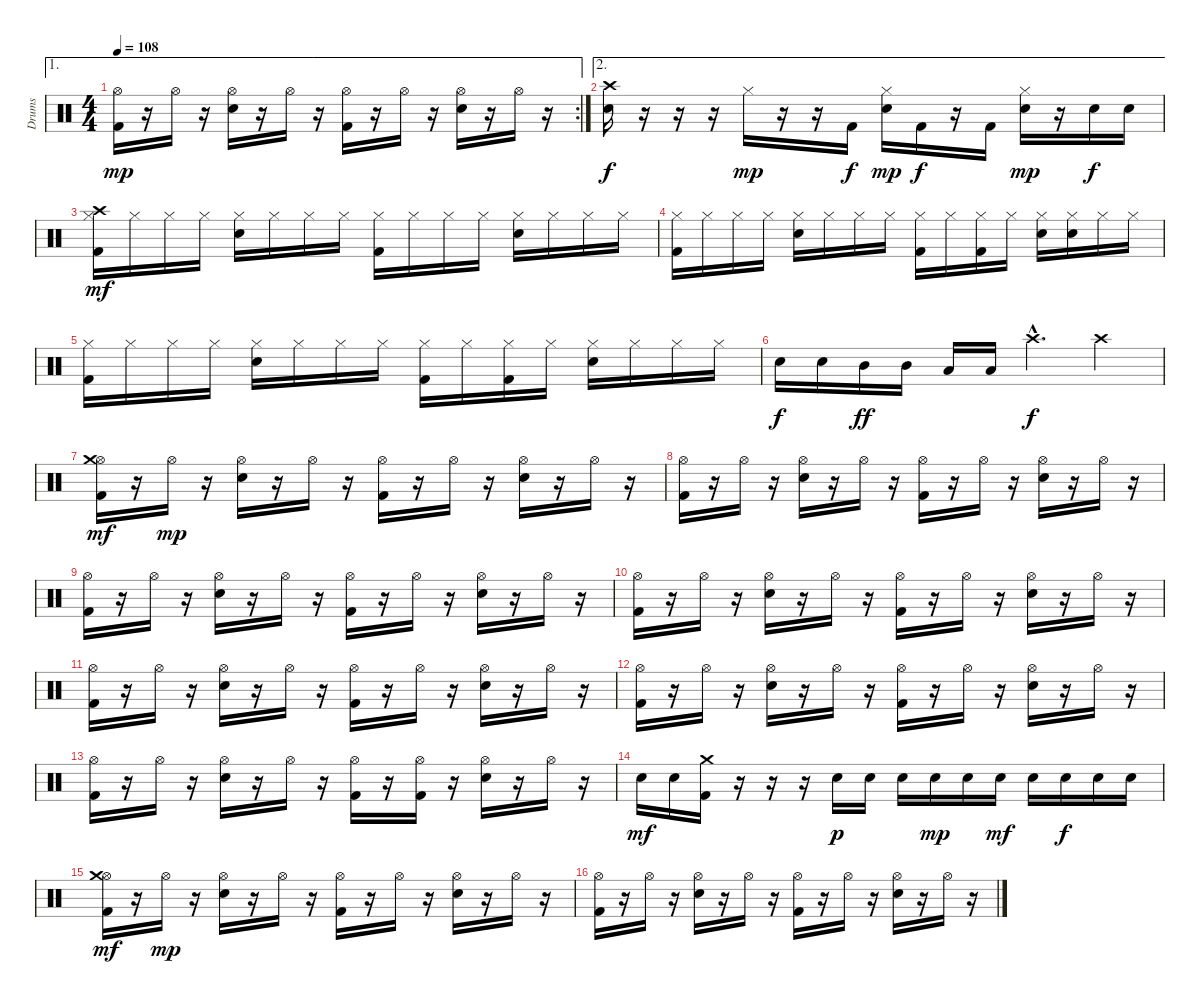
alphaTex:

\track ("Drums" "Drums") {instrument percussion}
\staff {score}
\articulation defaults
\ae 1
\rc 2
\ts (4 4)
\tempo 108
\clef neutral
\ks c
("Hi-Hat (open)" "Kick (hit) 2").16{dy mp} r.16 "Hi-Hat (open)".16 r.16 ("Hi-Hat (open)" "Snare (hit) 2").16 r.16 "Hi-Hat (open)".16 r.16 ("Hi-Hat (open)" "Kick (hit) 2").16 r.16 "Hi-Hat (open)".16 r.16 ("Hi-Hat (open)" "Snare (hit) 2").16 r.16 "Hi-Hat (open)".16 r.16 |
\ae 2
("Crash high (hit)" "Snare (hit) 2").16{dy f} r.16 r.16 r.16 "Hi-Hat (closed)".16{dy mp} r.16 r.16 "Kick (hit) 2".16{dy f} ("Hi-Hat (closed)" "Snare (hit) 2").16{dy mp} "Kick (hit) 2".16{dy f} r.16 "Kick (hit) 2".16 ("Hi-Hat (closed)" "Snare (hit) 2").16{dy mp} r.16 "Snare (hit) 2".16{dy f} "Snare (hit) 2".16 |
("Hi-Hat (closed)" "Crash high (hit)" "Kick (hit) 2").16{dy mf} "Hi-Hat (closed)".16 "Hi-Hat (closed)".16 "Hi-Hat (closed)".16 ("Hi-Hat (closed)" "Snare (hit) 2").16 "Hi-Hat (closed)".16 "Hi-Hat (closed)".16 "Hi-Hat (closed)".16 ("Hi-Hat (closed)" "Kick (hit) 2").16 "Hi-Hat (closed)".16 "Hi-Hat (closed)".16 "Hi-Hat (closed)".16 ("Hi-Hat (closed)" "Snare (hit) 2").16 "Hi-Hat (closed)".16 "Hi-Hat (closed)".16 "Hi-Hat (closed)".16 |
("Hi-Hat (closed)" "Kick (hit) 2").16 "Hi-Hat (closed)".16 "Hi-Hat (closed)".16 "Hi-Hat (closed)".16 ("Hi-Hat (closed)" "Snare (hit) 2").16 "Hi-Hat (closed)".16 "Hi-Hat (closed)".16 "Hi-Hat (closed)".16 ("Hi-Hat (closed)" "Kick (hit) 2").16 "Hi-Hat (closed)".16 ("Hi-Hat (closed)" "Kick (hit) 2").16 "Hi-Hat (closed)".16 ("Hi-Hat (closed)" "Snare (hit) 2").16 ("Hi-Hat (closed)" "Snare (hit) 2").16 "Hi-Hat (closed)".16 "Hi-Hat (closed)".16 |
("Hi-Hat (closed)" "Kick (hit) 2").16 "Hi-Hat (closed)".16 "Hi-Hat (closed)".16 "Hi-Hat (closed)".16 ("Hi-Hat (closed)" "Snare (hit) 2").16 "Hi-Hat (closed)".16 "Hi-Hat (closed)".16 "Hi-Hat (closed)".16 ("Hi-Hat (closed)" "Kick (hit) 2").16 "Hi-Hat (closed)".16 ("Hi-Hat (closed)" "Kick (hit) 2").16 "Hi-Hat (closed)".16 ("Hi-Hat (closed)" "Snare (hit) 2").16 "Hi-Hat (closed)".16 "Hi-Hat (closed)".16 "Hi-Hat (closed)".16 |
"Snare (hit) 2".16{dy f} "Snare (hit) 2".16 "Mid Tom (hit)".16{dy ff} "Mid Tom (hit)".16 "Low Tom (hit)".16 "Low Tom (hit)".16 "Crash high (hit)"{hac}.4{d dy f} "Crash high (hit)".4 |
("Hi-Hat (open)" "Crash medium (hit)" "Kick (hit) 2").16{dy mf} r.16 "Hi-Hat (open)".16{dy mp} r.16 ("Hi-Hat (open)" "Snare (hit) 2").16 r.16 "Hi-Hat (open)".16 r.16 ("Hi-Hat (open)" "Kick (hit) 2").16 r.16 "Hi-Hat (open)".16 r.16 ("Hi-Hat (open)" "Snare (hit) 2").16 r.16 "Hi-Hat (open)".16 r.16 |
("Hi-Hat (open)" "Kick (hit) 2").16 r.16 "Hi-Hat (open)".16 r.16 ("Hi-Hat (open)" "Snare (hit) 2").16 r.16 "Hi-Hat (open)".16 r.16 ("Hi-Hat (open)" "Kick (hit) 2").16 r.16 "Hi-Hat (open)".16 r.16 ("Hi-Hat (open)" "Snare (hit) 2").16 r.16 "Hi-Hat (open)".16 r.16 |
("Hi-Hat (open)" "Kick (hit) 2").16 r.16 "Hi-Hat (open)".16 r.16 ("Hi-Hat (open)" "Snare (hit) 2").16 r.16 "Hi-Hat (open)".16 r.16 ("Hi-Hat (open)" "Kick (hit) 2").16 r.16 "Hi-Hat (open)".16 r.16 ("Hi-Hat (open)" "Snare (hit) 2").16 r.16 "Hi-Hat (open)".16 r.16 |
("Hi-Hat (open)" "Kick (hit) 2").16 r.16 "Hi-Hat (open)".16 r.16 ("Hi-Hat (open)" "Snare (hit) 2").16 r.16 "Hi-Hat (open)".16 r.16 ("Hi-Hat (open)" "Kick (hit) 2").16 r.16 "Hi-Hat (open)".16 r.16 ("Hi-Hat (open)" "Snare (hit) 2").16 r.16 "Hi-Hat (open)".16 r.16 |
("Hi-Hat (open)" "Kick (hit) 2").16 r.16 "Hi-Hat (open)".16 r.16 ("Hi-Hat (open)" "Snare (hit) 2").16 r.16 "Hi-Hat (open)".16 r.16 ("Hi-Hat (open)" "Kick (hit) 2").16 r.16 "Hi-Hat (open)".16 r.16 ("Hi-Hat (open)" "Snare (hit) 2").16 r.16 "Hi-Hat (open)".16 r.16 |
("Hi-Hat (open)" "Kick (hit) 2").16 r.16 "Hi-Hat (open)".16 r.16 ("Hi-Hat (open)" "Snare (hit) 2").16 r.16 "Hi-Hat (open)".16 r.16 ("Hi-Hat (open)" "Kick (hit) 2").16 r.16 "Hi-Hat (open)".16 r.16 ("Hi-Hat (open)" "Snare (hit) 2").16 r.16 "Hi-Hat (open)".16 r.16 |
("Hi-Hat (open)" "Kick (hit) 2").16 r.16 "Hi-Hat (open)".16 r.16 ("Hi-Hat (open)" "Snare (hit) 2").16 r.16 "Hi-Hat (open)".16 r.16 ("Hi-Hat (open)" "Kick (hit) 2").16 r.16 ("Hi-Hat (open)" "Kick (hit) 2").16 r.16 ("Hi-Hat (open)" "Snare (hit) 2").16 r.16 "Hi-Hat (open)".16 r.16 |
"Snare (hit) 2".16{dy mf} "Snare (hit) 2".16 ("Crash medium (hit)" "Kick (hit) 2").16 r.16 r.16 r.16 "Snare (hit) 2".16{dy p} "Snare (hit) 2".16 "Snare (hit) 2".16 "Snare (hit) 2".16{dy mp} "Snare (hit) 2".16 "Snare (hit) 2".16{dy mf} "Snare (hit) 2".16 "Snare (hit) 2".16{dy f} "Snare (hit) 2".16 "Snare (hit) 2".16 |
("Hi-Hat (open)" "Crash medium (hit)" "Kick (hit) 2").16{dy mf} r.16 "Hi-Hat (open)".16{dy mp} r.16 ("Hi-Hat (open)" "Snare (hit) 2").16 r.16 "Hi-Hat (open)".16 r.16 ("Hi-Hat (open)" "Kick (hit) 2").16 r.16 "Hi-Hat (open)".16 r.16 ("Hi-Hat (open)" "Snare (hit) 2").16 r.16 "Hi-Hat (open)".16 r.16 |
("Hi-Hat (open)" "Kick (hit) 2").16 r.16 "Hi-Hat (open)".16 r.16 ("Hi-Hat (open)" "Snare (hit) 2").16 r.16 "Hi-Hat (open)".16 r.16 ("Hi-Hat (open)" "Kick (hit) 2").16 r.16 "Hi-Hat (open)".16 r.16 ("Hi-Hat (open)" "Snare (hit) 2").16 r.16 "Hi-Hat (open)".16 r.16
